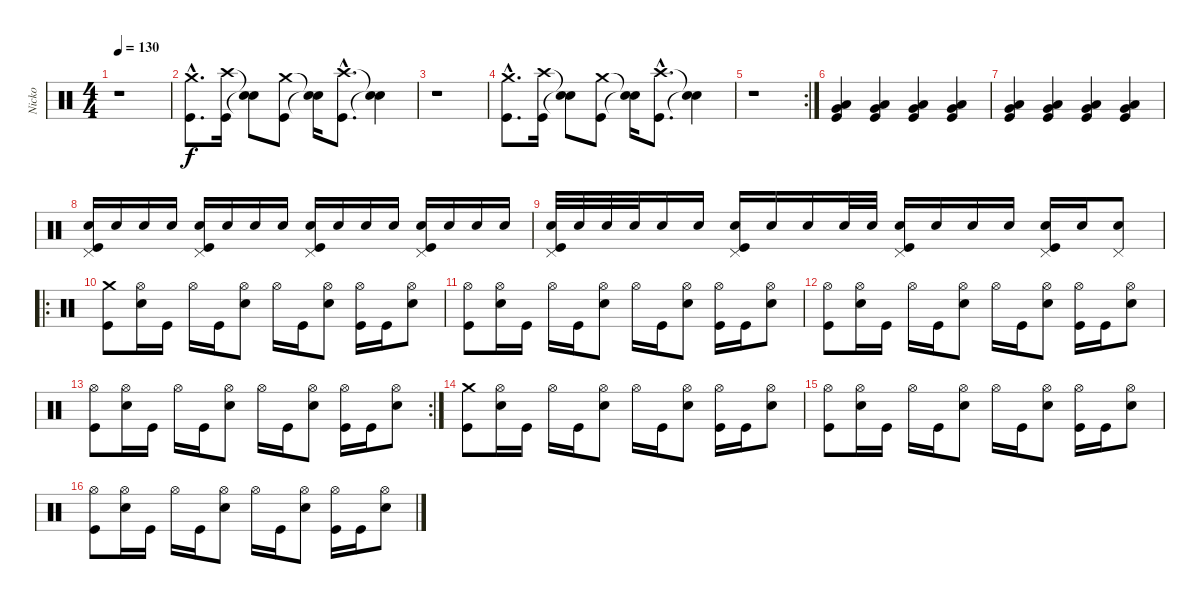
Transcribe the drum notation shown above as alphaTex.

\track ("Nicko" "Nicko") {instrument percussion}
\staff {score}
\articulation defaults
\ts (4 4)
\tempo 130
\clef neutral
\ks c
r.1{dy f} |
("Crash medium (hit)"{hac} "Kick (hit)"{hac}).8{d} ("Crash high (hit)" "Kick (hit)").16 ("Snare (hit)"{t} "Snare (hit)"{t}).8 ("Crash medium (hit)" "Kick (hit)").8 ("Snare (hit)"{t} "Snare (hit)"{t}).16 ("Crash high (hit)"{hac} "Kick (hit)"{hac}).8{d} ("Snare (hit)"{t} "Snare (hit)"{t}).4 |
r.1 |
("Crash medium (hit)"{hac} "Kick (hit)"{hac}).8{d} ("Crash high (hit)" "Kick (hit)").16 ("Snare (hit)"{t} "Snare (hit)"{t}).8 ("Crash medium (hit)" "Kick (hit)").8 ("Snare (hit)"{t} "Snare (hit)"{t}).16 ("Crash high (hit)"{hac} "Kick (hit)"{hac}).8{d} ("Snare (hit)"{t} "Snare (hit)"{t}).4 |
\rc 2
r.1 |
("Very Low Tom (hit)" "Low Floor Tom (hit)" "Kick (hit)").4 ("Very Low Tom (hit)" "Low Floor Tom (hit)" "Kick (hit)").4 ("Very Low Tom (hit)" "Low Floor Tom (hit)" "Kick (hit)").4 ("Very Low Tom (hit)" "Low Floor Tom (hit)" "Kick (hit)").4 |
("Very Low Tom (hit)" "Low Floor Tom (hit)" "Kick (hit)").4 ("Very Low Tom (hit)" "Low Floor Tom (hit)" "Kick (hit)").4 ("Very Low Tom (hit)" "Low Floor Tom (hit)" "Kick (hit)").4 ("Very Low Tom (hit)" "Low Floor Tom (hit)" "Kick (hit)").4 |
("Snare (hit) 2" "Pedal Hi-Hat (hit)" "Kick (hit)").16 "Snare (hit) 2".16 "Snare (hit) 2".16 "Snare (hit) 2".16 ("Snare (hit) 2" "Pedal Hi-Hat (hit)" "Kick (hit)").16 "Snare (hit) 2".16 "Snare (hit) 2".16 "Snare (hit) 2".16 ("Snare (hit) 2" "Pedal Hi-Hat (hit)" "Kick (hit)").16 "Snare (hit) 2".16 "Snare (hit) 2".16 "Snare (hit) 2".16 ("Snare (hit) 2" "Pedal Hi-Hat (hit)" "Kick (hit)").16 "Snare (hit) 2".16 "Snare (hit) 2".16 "Snare (hit) 2".16 |
("Snare (hit) 2" "Pedal Hi-Hat (hit)" "Kick (hit)").32 "Snare (hit) 2".32 "Snare (hit) 2".32 "Snare (hit) 2".32 "Snare (hit) 2".16 "Snare (hit) 2".16 ("Snare (hit) 2" "Pedal Hi-Hat (hit)" "Kick (hit)").16 "Snare (hit) 2".16 "Snare (hit) 2".16 "Snare (hit) 2".32 "Snare (hit) 2".32 ("Snare (hit) 2" "Pedal Hi-Hat (hit)" "Kick (hit)").16 "Snare (hit) 2".16 "Snare (hit) 2".16 "Snare (hit) 2".16 ("Snare (hit) 2" "Pedal Hi-Hat (hit)" "Kick (hit)").16 "Snare (hit) 2".16 ("Snare (hit) 2" "Pedal Hi-Hat (hit)").8 |
\ro
("Crash medium (hit)" "Kick (hit)").8 ("Hi-Hat (open)" "Snare (hit) 2").16 "Kick (hit)".16 "Hi-Hat (open)".16 "Kick (hit)".16 ("Hi-Hat (open)" "Snare (hit) 2").8 "Hi-Hat (open)".16 "Kick (hit)".16 ("Hi-Hat (open)" "Snare (hit) 2").8 ("Hi-Hat (open)" "Kick (hit)").16 "Kick (hit)".16 ("Hi-Hat (open)" "Snare (hit) 2").8 |
("Hi-Hat (open)" "Kick (hit)").8 ("Hi-Hat (open)" "Snare (hit) 2").16 "Kick (hit)".16 "Hi-Hat (open)".16 "Kick (hit)".16 ("Hi-Hat (open)" "Snare (hit) 2").8 "Hi-Hat (open)".16 "Kick (hit)".16 ("Hi-Hat (open)" "Snare (hit) 2").8 ("Hi-Hat (open)" "Kick (hit)").16 "Kick (hit)".16 ("Hi-Hat (open)" "Snare (hit) 2").8 |
("Hi-Hat (open)" "Kick (hit)").8 ("Hi-Hat (open)" "Snare (hit) 2").16 "Kick (hit)".16 "Hi-Hat (open)".16 "Kick (hit)".16 ("Hi-Hat (open)" "Snare (hit) 2").8 "Hi-Hat (open)".16 "Kick (hit)".16 ("Hi-Hat (open)" "Snare (hit) 2").8 ("Hi-Hat (open)" "Kick (hit)").16 "Kick (hit)".16 ("Hi-Hat (open)" "Snare (hit) 2").8 |
\rc 2
("Hi-Hat (open)" "Kick (hit)").8 ("Hi-Hat (open)" "Snare (hit) 2").16 "Kick (hit)".16 "Hi-Hat (open)".16 "Kick (hit)".16 ("Hi-Hat (open)" "Snare (hit) 2").8 "Hi-Hat (open)".16 "Kick (hit)".16 ("Hi-Hat (open)" "Snare (hit) 2").8 ("Hi-Hat (open)" "Kick (hit)").16 "Kick (hit)".16 ("Hi-Hat (open)" "Snare (hit) 2").8 |
("Crash medium (hit)" "Kick (hit)").8 ("Hi-Hat (open)" "Snare (hit) 2").16 "Kick (hit)".16 "Hi-Hat (open)".16 "Kick (hit)".16 ("Hi-Hat (open)" "Snare (hit) 2").8 "Hi-Hat (open)".16 "Kick (hit)".16 ("Hi-Hat (open)" "Snare (hit) 2").8 ("Hi-Hat (open)" "Kick (hit)").16 "Kick (hit)".16 ("Hi-Hat (open)" "Snare (hit) 2").8 |
("Hi-Hat (open)" "Kick (hit)").8 ("Hi-Hat (open)" "Snare (hit) 2").16 "Kick (hit)".16 "Hi-Hat (open)".16 "Kick (hit)".16 ("Hi-Hat (open)" "Snare (hit) 2").8 "Hi-Hat (open)".16 "Kick (hit)".16 ("Hi-Hat (open)" "Snare (hit) 2").8 ("Hi-Hat (open)" "Kick (hit)").16 "Kick (hit)".16 ("Hi-Hat (open)" "Snare (hit) 2").8 |
("Hi-Hat (open)" "Kick (hit)").8 ("Hi-Hat (open)" "Snare (hit) 2").16 "Kick (hit)".16 "Hi-Hat (open)".16 "Kick (hit)".16 ("Hi-Hat (open)" "Snare (hit) 2").8 "Hi-Hat (open)".16 "Kick (hit)".16 ("Hi-Hat (open)" "Snare (hit) 2").8 ("Hi-Hat (open)" "Kick (hit)").16 "Kick (hit)".16 ("Hi-Hat (open)" "Snare (hit) 2").8
